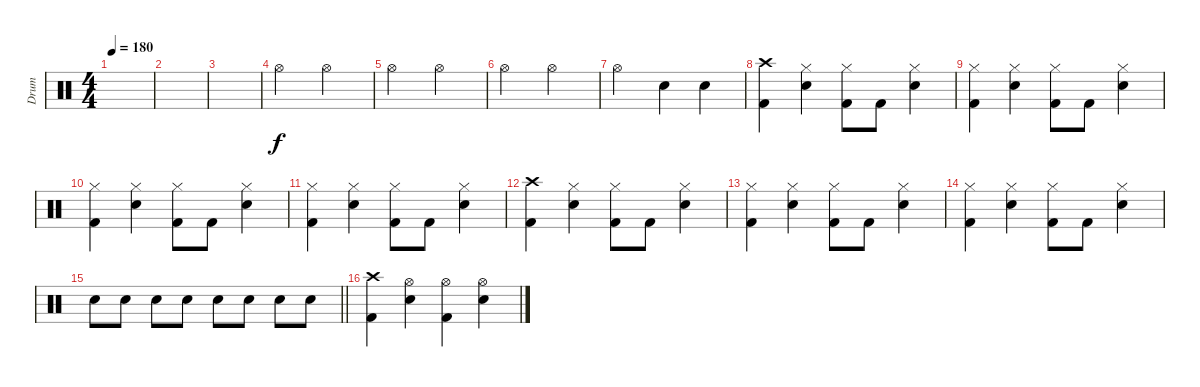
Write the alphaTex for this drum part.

\track ("Drum" "Drum") {instrument percussion}
\staff {score}
\articulation defaults
\ts (4 4)
\tempo 180
\clef neutral
\ks c
|
|
|
"Hi-Hat (open)".2 "Hi-Hat (open)".2 |
"Hi-Hat (open)".2 "Hi-Hat (open)".2 |
"Hi-Hat (open)".2 "Hi-Hat (open)".2 |
"Hi-Hat (open)".2 "Electric Snare (hit)".4 "Electric Snare (hit)".4 |
("Crash high (hit)" "Kick (hit) 2").4 ("Hi-Hat (closed)" "Electric Snare (hit)").4 ("Hi-Hat (closed)" "Kick (hit) 2").8 "Kick (hit) 2".8 ("Hi-Hat (closed)" "Electric Snare (hit)").4 |
("Hi-Hat (closed)" "Kick (hit) 2").4 ("Hi-Hat (closed)" "Electric Snare (hit)").4 ("Hi-Hat (closed)" "Kick (hit) 2").8 "Kick (hit) 2".8 ("Hi-Hat (closed)" "Electric Snare (hit)").4 |
("Hi-Hat (closed)" "Kick (hit) 2").4 ("Hi-Hat (closed)" "Electric Snare (hit)").4 ("Hi-Hat (closed)" "Kick (hit) 2").8 "Kick (hit) 2".8 ("Hi-Hat (closed)" "Electric Snare (hit)").4 |
("Hi-Hat (closed)" "Kick (hit) 2").4 ("Hi-Hat (closed)" "Electric Snare (hit)").4 ("Hi-Hat (closed)" "Kick (hit) 2").8 "Kick (hit) 2".8 ("Hi-Hat (closed)" "Electric Snare (hit)").4 |
("Crash high (hit)" "Kick (hit) 2").4 ("Hi-Hat (closed)" "Electric Snare (hit)").4 ("Hi-Hat (closed)" "Kick (hit) 2").8 "Kick (hit) 2".8 ("Hi-Hat (closed)" "Electric Snare (hit)").4 |
("Hi-Hat (closed)" "Kick (hit) 2").4 ("Hi-Hat (closed)" "Electric Snare (hit)").4 ("Hi-Hat (closed)" "Kick (hit) 2").8 "Kick (hit) 2".8 ("Hi-Hat (closed)" "Electric Snare (hit)").4 |
("Hi-Hat (closed)" "Kick (hit) 2").4 ("Hi-Hat (closed)" "Electric Snare (hit)").4 ("Hi-Hat (closed)" "Kick (hit) 2").8 "Kick (hit) 2".8 ("Hi-Hat (closed)" "Electric Snare (hit)").4 |
\barLineRight lightlight "Electric Snare (hit)".8 "Electric Snare (hit)".8 "Electric Snare (hit)".8 "Electric Snare (hit)".8 "Electric Snare (hit)".8 "Electric Snare (hit)".8 "Electric Snare (hit)".8 "Electric Snare (hit)".8
|
("Crash high (hit)" "Kick (hit) 2").4 ("Hi-Hat (open)" "Electric Snare (hit)").4 ("Hi-Hat (open)" "Kick (hit) 2").4 ("Hi-Hat (open)" "Electric Snare (hit)").4
